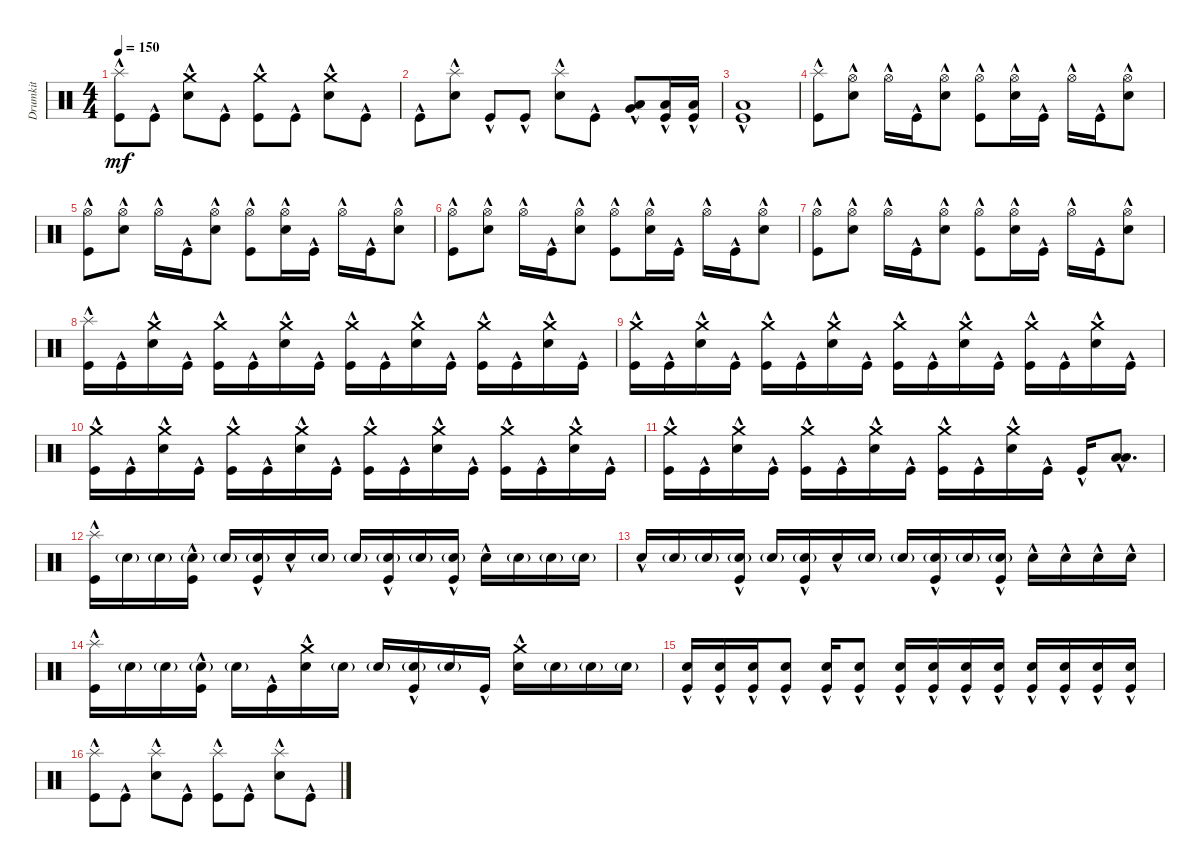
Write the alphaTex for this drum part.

\track ("Drumkit" "Drumkit") {instrument percussion}
\staff {score}
\articulation defaults
\ts (4 4)
\tempo 150
\clef neutral
\ks c
("Kick (hit)"{hac} "Splash (hit)"{hac}).8{dy mf} "Kick (hit)"{hac}.8 ("Snare (hit) 2"{hac} "Crash medium (hit)").8 "Kick (hit)"{hac}.8 ("Kick (hit)"{hac} "Crash medium (hit)").8 "Kick (hit)"{hac}.8 ("Snare (hit) 2"{hac} "Crash medium (hit)").8 "Kick (hit)"{hac}.8 |
"Kick (hit)"{hac}.8 ("Snare (hit) 2"{hac} "Splash (hit)"{hac}).8 "Kick (hit)"{hac}.8 "Kick (hit)"{hac}.8 ("Snare (hit) 2"{hac} "Splash (hit)"{hac}).8 "Kick (hit)"{hac}.8 ("Low Tom (hit)"{hac} "Very Low Tom (hit)"{hac}).8 ("Kick (hit)"{hac} "Low Floor Tom (hit)"{hac}).16 ("Low Floor Tom (hit)"{hac} "Kick (hit)"{hac}).16 |
("Kick (hit)"{hac} "Low Floor Tom (hit)"{hac}).1 |
("Kick (hit)"{hac} "Splash (hit)"{hac}).8 ("Snare (hit) 2"{hac} "Hi-Hat (open)"{hac}).8 "Hi-Hat (open)"{hac}.16 "Kick (hit)"{hac}.16 ("Snare (hit) 2"{hac} "Hi-Hat (open)"{hac}).8 ("Kick (hit)"{hac} "Hi-Hat (open)"{hac}).8 ("Snare (hit) 2"{hac} "Hi-Hat (open)"{hac}).16 "Kick (hit)"{hac}.16 "Hi-Hat (open)"{hac}.16 "Kick (hit)"{hac}.16 ("Snare (hit) 2"{hac} "Hi-Hat (open)"{hac}).8 |
("Kick (hit)"{hac} "Hi-Hat (open)"{hac}).8 ("Snare (hit) 2"{hac} "Hi-Hat (open)"{hac}).8 "Hi-Hat (open)"{hac}.16 "Kick (hit)"{hac}.16 ("Snare (hit) 2"{hac} "Hi-Hat (open)"{hac}).8 ("Kick (hit)"{hac} "Hi-Hat (open)"{hac}).8 ("Snare (hit) 2"{hac} "Hi-Hat (open)"{hac}).16 "Kick (hit)"{hac}.16 "Hi-Hat (open)"{hac}.16 "Kick (hit)"{hac}.16 ("Snare (hit) 2"{hac} "Hi-Hat (open)"{hac}).8 |
("Kick (hit)"{hac} "Hi-Hat (open)"{hac}).8 ("Snare (hit) 2"{hac} "Hi-Hat (open)"{hac}).8 "Hi-Hat (open)"{hac}.16 "Kick (hit)"{hac}.16 ("Snare (hit) 2"{hac} "Hi-Hat (open)"{hac}).8 ("Kick (hit)"{hac} "Hi-Hat (open)"{hac}).8 ("Snare (hit) 2"{hac} "Hi-Hat (open)"{hac}).16 "Kick (hit)"{hac}.16 "Hi-Hat (open)"{hac}.16 "Kick (hit)"{hac}.16 ("Snare (hit) 2"{hac} "Hi-Hat (open)"{hac}).8 |
("Kick (hit)"{hac} "Hi-Hat (open)"{hac}).8 ("Snare (hit) 2"{hac} "Hi-Hat (open)"{hac}).8 "Hi-Hat (open)"{hac}.16 "Kick (hit)"{hac}.16 ("Snare (hit) 2"{hac} "Hi-Hat (open)"{hac}).8 ("Kick (hit)"{hac} "Hi-Hat (open)"{hac}).8 ("Snare (hit) 2"{hac} "Hi-Hat (open)"{hac}).16 "Kick (hit)"{hac}.16 "Hi-Hat (open)"{hac}.16 "Kick (hit)"{hac}.16 ("Snare (hit) 2"{hac} "Hi-Hat (open)"{hac}).8 |
("Kick (hit)"{hac} "Splash (hit)"{hac}).16 "Kick (hit)"{hac}.16 ("Snare (hit) 2"{hac} "Crash medium (hit)").16 "Kick (hit)"{hac}.16 ("Kick (hit)"{hac} "Crash medium (hit)").16 "Kick (hit)"{hac}.16 ("Snare (hit) 2"{hac} "Crash medium (hit)").16 "Kick (hit)"{hac}.16 ("Kick (hit)"{hac} "Crash medium (hit)").16 "Kick (hit)"{hac}.16 ("Snare (hit) 2"{hac} "Crash medium (hit)").16 "Kick (hit)"{hac}.16 ("Kick (hit)"{hac} "Crash medium (hit)").16 "Kick (hit)"{hac}.16 ("Snare (hit) 2"{hac} "Crash medium (hit)").16 "Kick (hit)"{hac}.16 |
("Kick (hit)"{hac} "Crash medium (hit)").16 "Kick (hit)"{hac}.16 ("Snare (hit) 2"{hac} "Crash medium (hit)").16 "Kick (hit)"{hac}.16 ("Kick (hit)"{hac} "Crash medium (hit)").16 "Kick (hit)"{hac}.16 ("Snare (hit) 2"{hac} "Crash medium (hit)").16 "Kick (hit)"{hac}.16 ("Kick (hit)"{hac} "Crash medium (hit)").16 "Kick (hit)"{hac}.16 ("Snare (hit) 2"{hac} "Crash medium (hit)").16 "Kick (hit)"{hac}.16 ("Kick (hit)"{hac} "Crash medium (hit)").16 "Kick (hit)"{hac}.16 ("Snare (hit) 2"{hac} "Crash medium (hit)").16 "Kick (hit)"{hac}.16 |
("Kick (hit)"{hac} "Crash medium (hit)").16 "Kick (hit)"{hac}.16 ("Snare (hit) 2"{hac} "Crash medium (hit)").16 "Kick (hit)"{hac}.16 ("Kick (hit)"{hac} "Crash medium (hit)").16 "Kick (hit)"{hac}.16 ("Snare (hit) 2"{hac} "Crash medium (hit)").16 "Kick (hit)"{hac}.16 ("Kick (hit)"{hac} "Crash medium (hit)").16 "Kick (hit)"{hac}.16 ("Snare (hit) 2"{hac} "Crash medium (hit)").16 "Kick (hit)"{hac}.16 ("Kick (hit)"{hac} "Crash medium (hit)").16 "Kick (hit)"{hac}.16 ("Snare (hit) 2"{hac} "Crash medium (hit)").16 "Kick (hit)"{hac}.16 |
("Kick (hit)"{hac} "Crash medium (hit)").16 "Kick (hit)"{hac}.16 ("Snare (hit) 2"{hac} "Crash medium (hit)").16 "Kick (hit)"{hac}.16 ("Kick (hit)"{hac} "Crash medium (hit)").16 "Kick (hit)"{hac}.16 ("Snare (hit) 2"{hac} "Crash medium (hit)").16 "Kick (hit)"{hac}.16 ("Kick (hit)"{hac} "Crash medium (hit)").16 "Kick (hit)"{hac}.16 ("Snare (hit) 2"{hac} "Crash medium (hit)").16 "Kick (hit)"{hac}.16 "Kick (hit)"{hac}.16 ("Low Tom (hit)"{hac} "Low Floor Tom (hit)"{hac}).8{d} |
("Splash (hit)"{hac} "Kick (hit)"{hac}).16 "Snare (hit) 2"{g}.16 "Snare (hit) 2"{g}.16 ("Snare (hit) 2"{g} "Kick (hit)"{hac}).16 "Snare (hit) 2"{g}.16 ("Snare (hit) 2"{g} "Kick (hit)"{hac}).16 "Snare (hit) 2"{hac}.16 "Snare (hit) 2"{g}.16 "Snare (hit) 2"{g}.16 ("Snare (hit) 2"{g} "Kick (hit)"{hac}).16 "Snare (hit) 2"{g}.16 ("Snare (hit) 2"{g} "Kick (hit)"{hac}).16 "Snare (hit) 2"{hac}.16 "Snare (hit) 2"{g}.16 "Snare (hit) 2"{g}.16 "Snare (hit) 2"{g}.16 |
"Snare (hit) 2"{hac}.16 "Snare (hit) 2"{g}.16 "Snare (hit) 2"{g}.16 ("Snare (hit) 2"{g} "Kick (hit)"{hac}).16 "Snare (hit) 2"{g}.16 ("Snare (hit) 2"{g} "Kick (hit)"{hac}).16 "Snare (hit) 2"{hac}.16 "Snare (hit) 2"{g}.16 "Snare (hit) 2"{g}.16 ("Snare (hit) 2"{g} "Kick (hit)"{hac}).16 "Snare (hit) 2"{g}.16 ("Snare (hit) 2"{g} "Kick (hit)"{hac}).16 "Snare (hit) 2"{hac}.16 "Snare (hit) 2"{hac}.16 "Snare (hit) 2"{hac}.16 "Snare (hit) 2"{hac}.16 |
("Splash (hit)"{hac} "Kick (hit)"{hac}).16 "Snare (hit) 2"{g}.16 "Snare (hit) 2"{g}.16 ("Snare (hit) 2"{g} "Kick (hit)"{hac}).16 "Snare (hit) 2"{g}.16 "Kick (hit)"{hac}.16 ("Snare (hit) 2"{hac} "Crash medium (hit)").16 "Snare (hit) 2"{g}.16 "Snare (hit) 2"{g}.16 ("Snare (hit) 2"{g} "Kick (hit)"{hac}).16 "Snare (hit) 2"{g}.16 "Kick (hit)"{hac}.16 ("Snare (hit) 2"{hac} "Crash medium (hit)").16 "Snare (hit) 2"{g}.16 "Snare (hit) 2"{g}.16 "Snare (hit) 2"{g}.16 |
("Snare (hit) 2"{hac} "Kick (hit)").16 ("Snare (hit) 2"{hac} "Kick (hit)").16 ("Snare (hit) 2"{hac} "Kick (hit)").16 ("Snare (hit) 2"{hac} "Kick (hit)").8 ("Snare (hit) 2"{hac} "Kick (hit)").16 ("Snare (hit) 2"{hac} "Kick (hit)").8 ("Snare (hit) 2"{hac} "Kick (hit)").16 ("Snare (hit) 2"{hac} "Kick (hit)").16 ("Snare (hit) 2"{hac} "Kick (hit)").16 ("Snare (hit) 2"{hac} "Kick (hit)").16 ("Snare (hit) 2"{hac} "Kick (hit)").16 ("Snare (hit) 2"{hac} "Kick (hit)").16 ("Snare (hit) 2"{hac} "Kick (hit)").16 ("Snare (hit) 2"{hac} "Kick (hit)").16 |
("Kick (hit)"{hac} "Splash (hit)"{hac}).8 "Kick (hit)"{hac}.8 ("Snare (hit) 2"{hac} "Splash (hit)"{hac}).8 "Kick (hit)"{hac}.8 ("Kick (hit)"{hac} "Splash (hit)"{hac}).8 "Kick (hit)"{hac}.8 ("Snare (hit) 2"{hac} "Splash (hit)"{hac}).8 "Kick (hit)"{hac}.8
